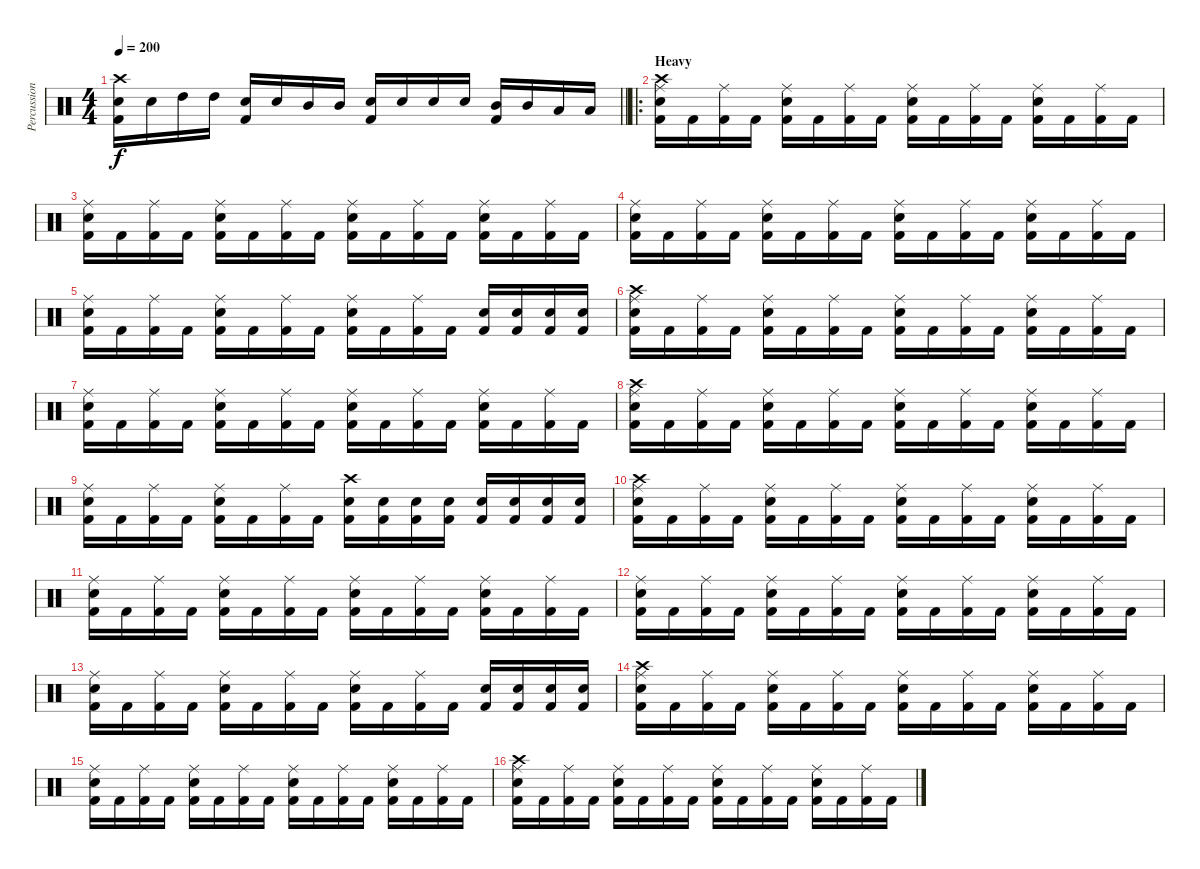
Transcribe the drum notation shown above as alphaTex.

\track ("Percussion" "Percussion") {instrument percussion}
\staff {score}
\articulation defaults
\ts (4 4)
\tempo 200
\clef neutral
\barLineRight lightlight
\ks c
("Crash high (hit)" "Snare (hit) 2" "Kick (hit) 2").16{dy f} "Snare (hit) 2".16 "High Tom (hit)".16 "High Tom (hit)".16 ("Snare (hit) 2" "Kick (hit) 2").16 "Snare (hit) 2".16 "Mid Tom (hit)".16 "Mid Tom (hit)".16 ("Snare (hit) 2" "Kick (hit) 2").16 "Snare (hit) 2".16 "Snare (hit) 2".16 "Snare (hit) 2".16 ("Mid Tom (hit)" "Kick (hit) 2").16 "Mid Tom (hit)".16 "Low Tom (hit)".16 "Low Tom (hit)".16 |
\ro
\section ("" "Heavy")
("Crash high (hit)" "Ride (middle)" "Snare (hit) 2" "Kick (hit) 2").16 "Kick (hit) 2".16 ("Ride (middle)" "Kick (hit) 2").16 "Kick (hit) 2".16 ("Ride (middle)" "Snare (hit) 2" "Kick (hit) 2").16 "Kick (hit) 2".16 ("Ride (middle)" "Kick (hit) 2").16 "Kick (hit) 2".16 ("Ride (middle)" "Snare (hit) 2" "Kick (hit) 2").16 "Kick (hit) 2".16 ("Ride (middle)" "Kick (hit) 2").16 "Kick (hit) 2".16 ("Ride (middle)" "Snare (hit) 2" "Kick (hit) 2").16 "Kick (hit) 2".16 ("Ride (middle)" "Kick (hit) 2").16 "Kick (hit) 2".16 |
("Ride (middle)" "Snare (hit) 2" "Kick (hit) 2").16 "Kick (hit) 2".16 ("Ride (middle)" "Kick (hit) 2").16 "Kick (hit) 2".16 ("Ride (middle)" "Snare (hit) 2" "Kick (hit) 2").16 "Kick (hit) 2".16 ("Ride (middle)" "Kick (hit) 2").16 "Kick (hit) 2".16 ("Ride (middle)" "Snare (hit) 2" "Kick (hit) 2").16 "Kick (hit) 2".16 ("Ride (middle)" "Kick (hit) 2").16 "Kick (hit) 2".16 ("Ride (middle)" "Snare (hit) 2" "Kick (hit) 2").16 "Kick (hit) 2".16 ("Ride (middle)" "Kick (hit) 2").16 "Kick (hit) 2".16 |
("Ride (middle)" "Snare (hit) 2" "Kick (hit) 2").16 "Kick (hit) 2".16 ("Ride (middle)" "Kick (hit) 2").16 "Kick (hit) 2".16 ("Ride (middle)" "Snare (hit) 2" "Kick (hit) 2").16 "Kick (hit) 2".16 ("Ride (middle)" "Kick (hit) 2").16 "Kick (hit) 2".16 ("Ride (middle)" "Snare (hit) 2" "Kick (hit) 2").16 "Kick (hit) 2".16 ("Ride (middle)" "Kick (hit) 2").16 "Kick (hit) 2".16 ("Ride (middle)" "Snare (hit) 2" "Kick (hit) 2").16 "Kick (hit) 2".16 ("Ride (middle)" "Kick (hit) 2").16 "Kick (hit) 2".16 |
("Ride (middle)" "Snare (hit) 2" "Kick (hit) 2").16 "Kick (hit) 2".16 ("Ride (middle)" "Kick (hit) 2").16 "Kick (hit) 2".16 ("Ride (middle)" "Snare (hit) 2" "Kick (hit) 2").16 "Kick (hit) 2".16 ("Ride (middle)" "Kick (hit) 2").16 "Kick (hit) 2".16 ("Ride (middle)" "Snare (hit) 2" "Kick (hit) 2").16 "Kick (hit) 2".16 ("Ride (middle)" "Kick (hit) 2").16 "Kick (hit) 2".16 ("Snare (hit) 2" "Kick (hit) 2").16 ("Snare (hit) 2" "Kick (hit) 2").16 ("Snare (hit) 2" "Kick (hit) 2").16 ("Snare (hit) 2" "Kick (hit) 2").16 |
("Crash high (hit)" "Ride (middle)" "Snare (hit) 2" "Kick (hit) 2").16 "Kick (hit) 2".16 ("Ride (middle)" "Kick (hit) 2").16 "Kick (hit) 2".16 ("Ride (middle)" "Snare (hit) 2" "Kick (hit) 2").16 "Kick (hit) 2".16 ("Ride (middle)" "Kick (hit) 2").16 "Kick (hit) 2".16 ("Ride (middle)" "Snare (hit) 2" "Kick (hit) 2").16 "Kick (hit) 2".16 ("Ride (middle)" "Kick (hit) 2").16 "Kick (hit) 2".16 ("Ride (middle)" "Snare (hit) 2" "Kick (hit) 2").16 "Kick (hit) 2".16 ("Ride (middle)" "Kick (hit) 2").16 "Kick (hit) 2".16 |
("Ride (middle)" "Snare (hit) 2" "Kick (hit) 2").16 "Kick (hit) 2".16 ("Ride (middle)" "Kick (hit) 2").16 "Kick (hit) 2".16 ("Ride (middle)" "Snare (hit) 2" "Kick (hit) 2").16 "Kick (hit) 2".16 ("Ride (middle)" "Kick (hit) 2").16 "Kick (hit) 2".16 ("Ride (middle)" "Snare (hit) 2" "Kick (hit) 2").16 "Kick (hit) 2".16 ("Ride (middle)" "Kick (hit) 2").16 "Kick (hit) 2".16 ("Ride (middle)" "Snare (hit) 2" "Kick (hit) 2").16 "Kick (hit) 2".16 ("Ride (middle)" "Kick (hit) 2").16 "Kick (hit) 2".16 |
("Crash high (hit)" "Ride (middle)" "Snare (hit) 2" "Kick (hit) 2").16 "Kick (hit) 2".16 ("Ride (middle)" "Kick (hit) 2").16 "Kick (hit) 2".16 ("Ride (middle)" "Snare (hit) 2" "Kick (hit) 2").16 "Kick (hit) 2".16 ("Ride (middle)" "Kick (hit) 2").16 "Kick (hit) 2".16 ("Ride (middle)" "Snare (hit) 2" "Kick (hit) 2").16 "Kick (hit) 2".16 ("Ride (middle)" "Kick (hit) 2").16 "Kick (hit) 2".16 ("Ride (middle)" "Snare (hit) 2" "Kick (hit) 2").16 "Kick (hit) 2".16 ("Ride (middle)" "Kick (hit) 2").16 "Kick (hit) 2".16 |
("Ride (middle)" "Snare (hit) 2" "Kick (hit) 2").16 "Kick (hit) 2".16 ("Ride (middle)" "Kick (hit) 2").16 "Kick (hit) 2".16 ("Ride (middle)" "Snare (hit) 2" "Kick (hit) 2").16 "Kick (hit) 2".16 ("Ride (middle)" "Kick (hit) 2").16 "Kick (hit) 2".16 ("Crash high (hit)" "Snare (hit) 2" "Kick (hit) 2").16 ("Snare (hit) 2" "Kick (hit) 2").16 ("Snare (hit) 2" "Kick (hit) 2").16 ("Snare (hit) 2" "Kick (hit) 2").16 ("Snare (hit) 2" "Kick (hit) 2").16 ("Snare (hit) 2" "Kick (hit) 2").16 ("Snare (hit) 2" "Kick (hit) 2").16 ("Snare (hit) 2" "Kick (hit) 2").16 |
("Crash high (hit)" "Ride (middle)" "Snare (hit) 2" "Kick (hit) 2").16 "Kick (hit) 2".16 ("Ride (middle)" "Kick (hit) 2").16 "Kick (hit) 2".16 ("Ride (middle)" "Snare (hit) 2" "Kick (hit) 2").16 "Kick (hit) 2".16 ("Ride (middle)" "Kick (hit) 2").16 "Kick (hit) 2".16 ("Ride (middle)" "Snare (hit) 2" "Kick (hit) 2").16 "Kick (hit) 2".16 ("Ride (middle)" "Kick (hit) 2").16 "Kick (hit) 2".16 ("Ride (middle)" "Snare (hit) 2" "Kick (hit) 2").16 "Kick (hit) 2".16 ("Ride (middle)" "Kick (hit) 2").16 "Kick (hit) 2".16 |
("Ride (middle)" "Snare (hit) 2" "Kick (hit) 2").16 "Kick (hit) 2".16 ("Ride (middle)" "Kick (hit) 2").16 "Kick (hit) 2".16 ("Ride (middle)" "Snare (hit) 2" "Kick (hit) 2").16 "Kick (hit) 2".16 ("Ride (middle)" "Kick (hit) 2").16 "Kick (hit) 2".16 ("Ride (middle)" "Snare (hit) 2" "Kick (hit) 2").16 "Kick (hit) 2".16 ("Ride (middle)" "Kick (hit) 2").16 "Kick (hit) 2".16 ("Ride (middle)" "Snare (hit) 2" "Kick (hit) 2").16 "Kick (hit) 2".16 ("Ride (middle)" "Kick (hit) 2").16 "Kick (hit) 2".16 |
("Ride (middle)" "Snare (hit) 2" "Kick (hit) 2").16 "Kick (hit) 2".16 ("Ride (middle)" "Kick (hit) 2").16 "Kick (hit) 2".16 ("Ride (middle)" "Snare (hit) 2" "Kick (hit) 2").16 "Kick (hit) 2".16 ("Ride (middle)" "Kick (hit) 2").16 "Kick (hit) 2".16 ("Ride (middle)" "Snare (hit) 2" "Kick (hit) 2").16 "Kick (hit) 2".16 ("Ride (middle)" "Kick (hit) 2").16 "Kick (hit) 2".16 ("Ride (middle)" "Snare (hit) 2" "Kick (hit) 2").16 "Kick (hit) 2".16 ("Ride (middle)" "Kick (hit) 2").16 "Kick (hit) 2".16 |
("Ride (middle)" "Snare (hit) 2" "Kick (hit) 2").16 "Kick (hit) 2".16 ("Ride (middle)" "Kick (hit) 2").16 "Kick (hit) 2".16 ("Ride (middle)" "Snare (hit) 2" "Kick (hit) 2").16 "Kick (hit) 2".16 ("Ride (middle)" "Kick (hit) 2").16 "Kick (hit) 2".16 ("Ride (middle)" "Snare (hit) 2" "Kick (hit) 2").16 "Kick (hit) 2".16 ("Ride (middle)" "Kick (hit) 2").16 "Kick (hit) 2".16 ("Snare (hit) 2" "Kick (hit) 2").16 ("Snare (hit) 2" "Kick (hit) 2").16 ("Snare (hit) 2" "Kick (hit) 2").16 ("Snare (hit) 2" "Kick (hit) 2").16 |
("Crash high (hit)" "Ride (middle)" "Snare (hit) 2" "Kick (hit) 2").16 "Kick (hit) 2".16 ("Ride (middle)" "Kick (hit) 2").16 "Kick (hit) 2".16 ("Ride (middle)" "Snare (hit) 2" "Kick (hit) 2").16 "Kick (hit) 2".16 ("Ride (middle)" "Kick (hit) 2").16 "Kick (hit) 2".16 ("Ride (middle)" "Snare (hit) 2" "Kick (hit) 2").16 "Kick (hit) 2".16 ("Ride (middle)" "Kick (hit) 2").16 "Kick (hit) 2".16 ("Ride (middle)" "Snare (hit) 2" "Kick (hit) 2").16 "Kick (hit) 2".16 ("Ride (middle)" "Kick (hit) 2").16 "Kick (hit) 2".16 |
("Ride (middle)" "Snare (hit) 2" "Kick (hit) 2").16 "Kick (hit) 2".16 ("Ride (middle)" "Kick (hit) 2").16 "Kick (hit) 2".16 ("Ride (middle)" "Snare (hit) 2" "Kick (hit) 2").16 "Kick (hit) 2".16 ("Ride (middle)" "Kick (hit) 2").16 "Kick (hit) 2".16 ("Ride (middle)" "Snare (hit) 2" "Kick (hit) 2").16 "Kick (hit) 2".16 ("Ride (middle)" "Kick (hit) 2").16 "Kick (hit) 2".16 ("Ride (middle)" "Snare (hit) 2" "Kick (hit) 2").16 "Kick (hit) 2".16 ("Ride (middle)" "Kick (hit) 2").16 "Kick (hit) 2".16 |
("Crash high (hit)" "Ride (middle)" "Snare (hit) 2" "Kick (hit) 2").16 "Kick (hit) 2".16 ("Ride (middle)" "Kick (hit) 2").16 "Kick (hit) 2".16 ("Ride (middle)" "Snare (hit) 2" "Kick (hit) 2").16 "Kick (hit) 2".16 ("Ride (middle)" "Kick (hit) 2").16 "Kick (hit) 2".16 ("Ride (middle)" "Snare (hit) 2" "Kick (hit) 2").16 "Kick (hit) 2".16 ("Ride (middle)" "Kick (hit) 2").16 "Kick (hit) 2".16 ("Ride (middle)" "Snare (hit) 2" "Kick (hit) 2").16 "Kick (hit) 2".16 ("Ride (middle)" "Kick (hit) 2").16 "Kick (hit) 2".16
